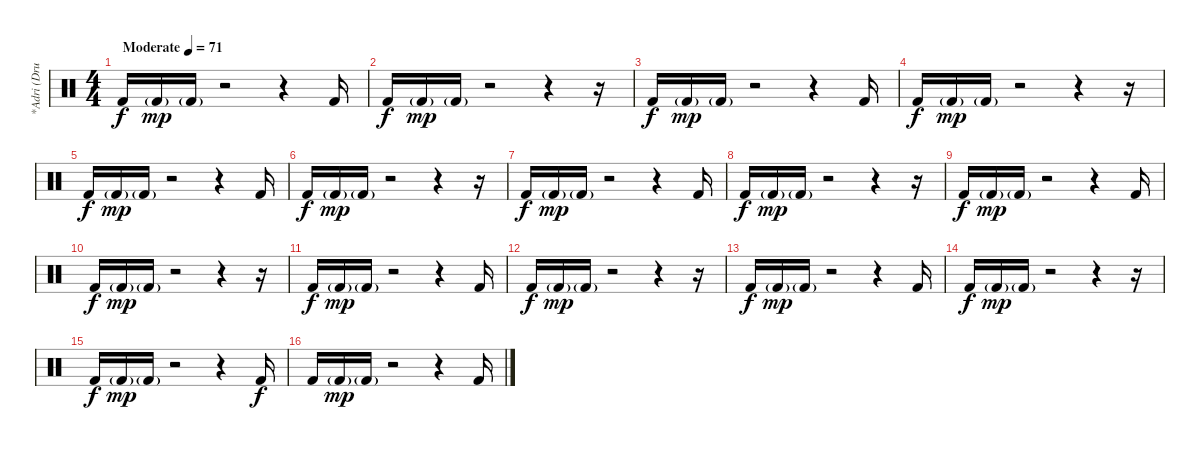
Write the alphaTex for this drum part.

\track ("*Adri (Drum)" "*Adri (Dru") {instrument percussion}
\staff {score}
\articulation defaults
\ts (4 4)
\tempo (71 "Moderate")
\clef neutral
\ks c "Kick (hit) 2".16{dy f} "Kick (hit) 2"{g}.16{dy mp} "Kick (hit) 2"{g}.16
r.2 r.4 "Kick (hit) 2".16 |
"Kick (hit) 2".16{dy f} "Kick (hit) 2"{g}.16{dy mp} "Kick (hit) 2"{g}.16 r.2 r.4 r.16 |
"Kick (hit) 2".16{dy f} "Kick (hit) 2"{g}.16{dy mp} "Kick (hit) 2"{g}.16 r.2 r.4 "Kick (hit) 2".16 |
"Kick (hit) 2".16{dy f} "Kick (hit) 2"{g}.16{dy mp} "Kick (hit) 2"{g}.16 r.2 r.4 r.16 |
"Kick (hit) 2".16{dy f} "Kick (hit) 2"{g}.16{dy mp} "Kick (hit) 2"{g}.16 r.2 r.4 "Kick (hit) 2".16 |
"Kick (hit) 2".16{dy f} "Kick (hit) 2"{g}.16{dy mp} "Kick (hit) 2"{g}.16 r.2 r.4 r.16 |
"Kick (hit) 2".16{dy f} "Kick (hit) 2"{g}.16{dy mp} "Kick (hit) 2"{g}.16 r.2 r.4 "Kick (hit) 2".16 |
"Kick (hit) 2".16{dy f} "Kick (hit) 2"{g}.16{dy mp} "Kick (hit) 2"{g}.16 r.2 r.4 r.16 |
"Kick (hit) 2".16{dy f} "Kick (hit) 2"{g}.16{dy mp} "Kick (hit) 2"{g}.16 r.2 r.4 "Kick (hit) 2".16 |
"Kick (hit) 2".16{dy f} "Kick (hit) 2"{g}.16{dy mp} "Kick (hit) 2"{g}.16 r.2 r.4 r.16 |
"Kick (hit) 2".16{dy f} "Kick (hit) 2"{g}.16{dy mp} "Kick (hit) 2"{g}.16 r.2 r.4 "Kick (hit) 2".16 |
"Kick (hit) 2".16{dy f} "Kick (hit) 2"{g}.16{dy mp} "Kick (hit) 2"{g}.16 r.2 r.4 r.16 |
"Kick (hit) 2".16{dy f} "Kick (hit) 2"{g}.16{dy mp} "Kick (hit) 2"{g}.16 r.2 r.4 "Kick (hit) 2".16 |
"Kick (hit) 2".16{dy f} "Kick (hit) 2"{g}.16{dy mp} "Kick (hit) 2"{g}.16 r.2 r.4 r.16 |
"Kick (hit) 2".16{dy f} "Kick (hit) 2"{g}.16{dy mp} "Kick (hit) 2"{g}.16 r.2 r.4 "Kick (hit) 2".16{dy f} |
"Kick (hit) 2".16 "Kick (hit) 2"{g}.16{dy mp} "Kick (hit) 2"{g}.16 r.2 r.4 "Kick (hit) 2".16
